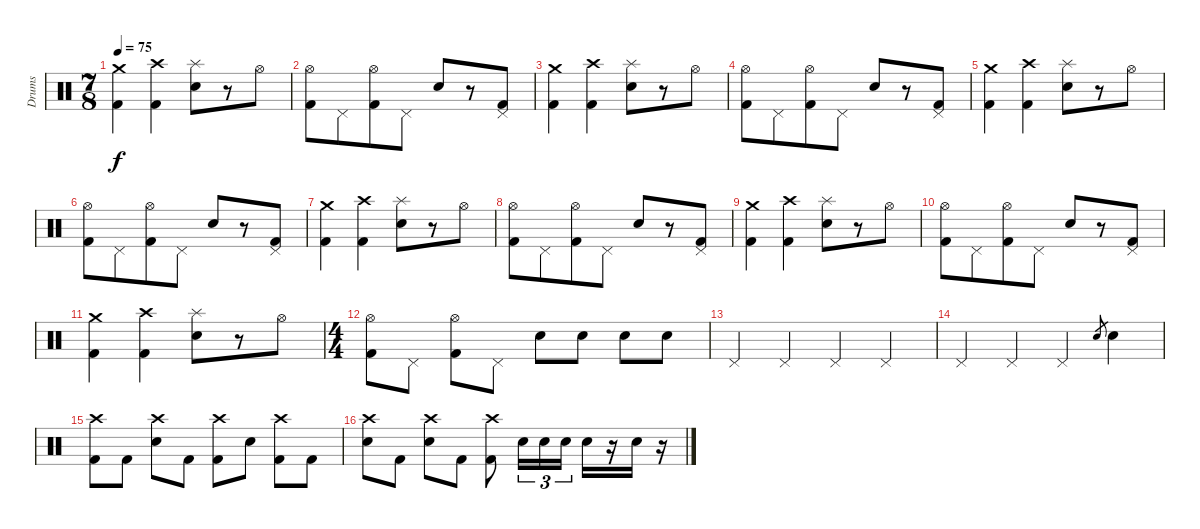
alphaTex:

\track ("Drums" "Drums") {instrument percussion}
\staff {score}
\articulation defaults
\ts (7 8)
\tempo 75
\clef neutral
\ks c
("Crash medium (hit)" "Kick (hit) 2").4{dy f} ("Crash high (hit)" "Kick (hit) 2").4 ("Splash (hit)" "Electric Snare (hit)").8 r.8 "Hi-Hat (open)".8 |
("Hi-Hat (open)" "Kick (hit) 2").8 "Pedal Hi-Hat (hit)".8 ("Hi-Hat (open)" "Kick (hit) 2").8 "Pedal Hi-Hat (hit)".8 "Electric Snare (hit)".8 r.8 ("Pedal Hi-Hat (hit)" "Kick (hit) 2").8 |
("Crash medium (hit)" "Kick (hit) 2").4 ("Crash high (hit)" "Kick (hit) 2").4 ("Splash (hit)" "Electric Snare (hit)").8 r.8 "Hi-Hat (open)".8 |
("Hi-Hat (open)" "Kick (hit) 2").8 "Pedal Hi-Hat (hit)".8 ("Hi-Hat (open)" "Kick (hit) 2").8 "Pedal Hi-Hat (hit)".8 "Electric Snare (hit)".8 r.8 ("Pedal Hi-Hat (hit)" "Kick (hit) 2").8 |
("Crash medium (hit)" "Kick (hit) 2").4 ("Crash high (hit)" "Kick (hit) 2").4 ("Splash (hit)" "Electric Snare (hit)").8 r.8 "Hi-Hat (open)".8 |
("Hi-Hat (open)" "Kick (hit) 2").8 "Pedal Hi-Hat (hit)".8 ("Hi-Hat (open)" "Kick (hit) 2").8 "Pedal Hi-Hat (hit)".8 "Electric Snare (hit)".8 r.8 ("Pedal Hi-Hat (hit)" "Kick (hit) 2").8 |
("Crash medium (hit)" "Kick (hit) 2").4 ("Crash high (hit)" "Kick (hit) 2").4 ("Splash (hit)" "Electric Snare (hit)").8 r.8 "Hi-Hat (open)".8 |
("Hi-Hat (open)" "Kick (hit) 2").8 "Pedal Hi-Hat (hit)".8 ("Hi-Hat (open)" "Kick (hit) 2").8 "Pedal Hi-Hat (hit)".8 "Electric Snare (hit)".8 r.8 ("Pedal Hi-Hat (hit)" "Kick (hit) 2").8 |
("Crash medium (hit)" "Kick (hit) 2").4 ("Crash high (hit)" "Kick (hit) 2").4 ("Splash (hit)" "Electric Snare (hit)").8 r.8 "Hi-Hat (open)".8 |
("Hi-Hat (open)" "Kick (hit) 2").8 "Pedal Hi-Hat (hit)".8 ("Hi-Hat (open)" "Kick (hit) 2").8 "Pedal Hi-Hat (hit)".8 "Electric Snare (hit)".8 r.8 ("Pedal Hi-Hat (hit)" "Kick (hit) 2").8 |
("Crash medium (hit)" "Kick (hit) 2").4 ("Crash high (hit)" "Kick (hit) 2").4 ("Splash (hit)" "Electric Snare (hit)").8 r.8 "Hi-Hat (open)".8 |
\ts (4 4)
("Hi-Hat (open)" "Kick (hit) 2").8 "Pedal Hi-Hat (hit)".8 ("Hi-Hat (open)" "Kick (hit) 2").8 "Pedal Hi-Hat (hit)".8 "Electric Snare (hit)".8 "Electric Snare (hit)".8 "Electric Snare (hit)".8 "Electric Snare (hit)".8 |
"Pedal Hi-Hat (hit)".4 "Pedal Hi-Hat (hit)".4 "Pedal Hi-Hat (hit)".4 "Pedal Hi-Hat (hit)".4 |
"Pedal Hi-Hat (hit)".4 "Pedal Hi-Hat (hit)".4 "Pedal Hi-Hat (hit)".4 "Electric Snare (hit)".8{gr} "Electric Snare (hit)".4 |
("Crash high (hit)" "Kick (hit) 2").8 "Kick (hit) 2".8 ("Crash high (hit)" "Electric Snare (hit)").8 "Kick (hit) 2".8 ("Crash high (hit)" "Kick (hit) 2").8 "Electric Snare (hit)".8 ("Crash high (hit)" "Kick (hit) 2").8 "Kick (hit) 2".8 |
("Crash high (hit)" "Electric Snare (hit)").8 "Kick (hit) 2".8 ("Crash high (hit)" "Electric Snare (hit)").8 "Kick (hit) 2".8 ("Crash high (hit)" "Kick (hit) 2").8 "Electric Snare (hit)".16{tu (3 2)} "Electric Snare (hit)".16{tu (3 2)} "Electric Snare (hit)".16{tu (3 2)} "Electric Snare (hit)".16 r.16 "Electric Snare (hit)".16 r.16
